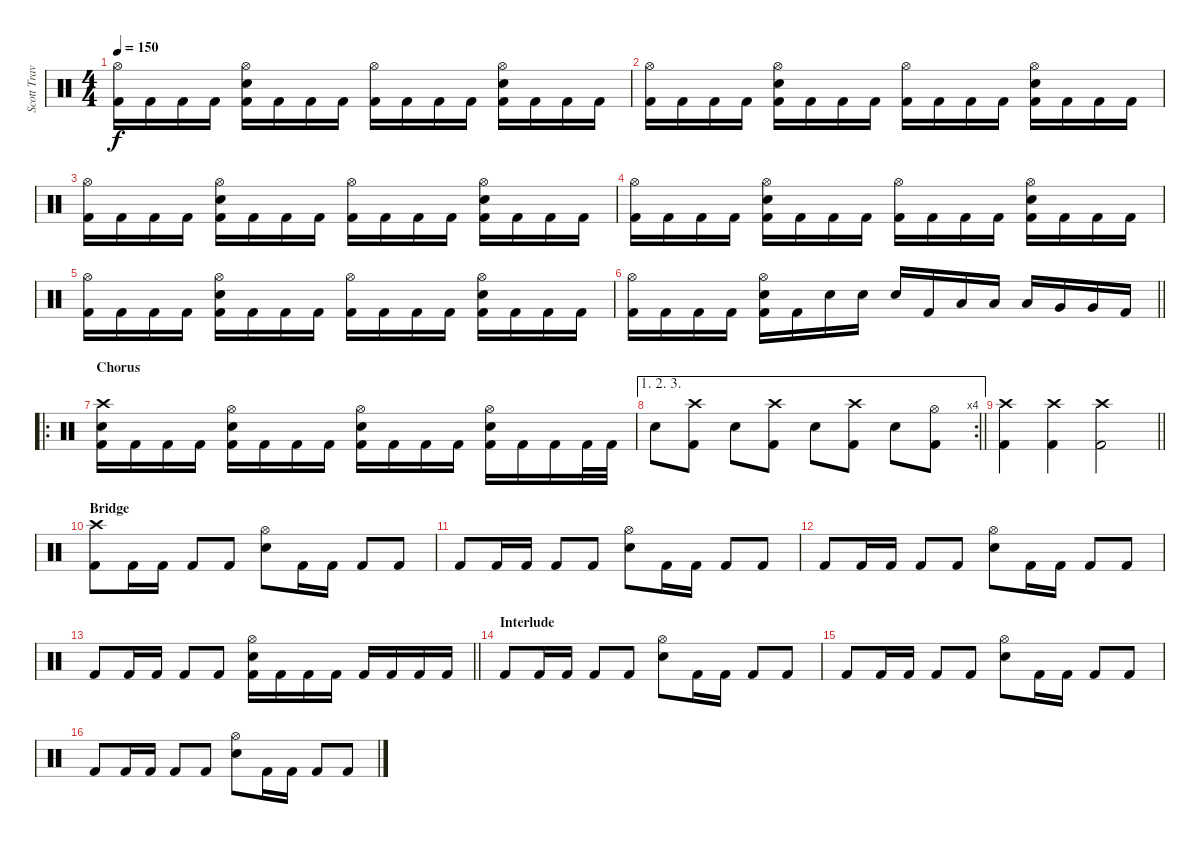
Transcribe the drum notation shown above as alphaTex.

\track ("Scott Travis" "Scott Trav") {instrument percussion}
\staff {score}
\articulation defaults
\ts (4 4)
\tempo 150
\clef neutral
\ks c
("Hi-Hat (open)" "Kick (hit) 2").16{dy f} "Kick (hit) 2".16 "Kick (hit) 2".16 "Kick (hit) 2".16 ("Hi-Hat (open)" "Snare (hit) 2" "Kick (hit) 2").16 "Kick (hit) 2".16 "Kick (hit) 2".16 "Kick (hit) 2".16 ("Hi-Hat (open)" "Kick (hit) 2").16 "Kick (hit) 2".16 "Kick (hit) 2".16 "Kick (hit) 2".16 ("Hi-Hat (open)" "Snare (hit) 2" "Kick (hit) 2").16 "Kick (hit) 2".16 "Kick (hit) 2".16 "Kick (hit) 2".16 |
("Hi-Hat (open)" "Kick (hit) 2").16 "Kick (hit) 2".16 "Kick (hit) 2".16 "Kick (hit) 2".16 ("Hi-Hat (open)" "Snare (hit) 2" "Kick (hit) 2").16 "Kick (hit) 2".16 "Kick (hit) 2".16 "Kick (hit) 2".16 ("Hi-Hat (open)" "Kick (hit) 2").16 "Kick (hit) 2".16 "Kick (hit) 2".16 "Kick (hit) 2".16 ("Hi-Hat (open)" "Snare (hit) 2" "Kick (hit) 2").16 "Kick (hit) 2".16 "Kick (hit) 2".16 "Kick (hit) 2".16 |
("Hi-Hat (open)" "Kick (hit) 2").16 "Kick (hit) 2".16 "Kick (hit) 2".16 "Kick (hit) 2".16 ("Hi-Hat (open)" "Snare (hit) 2" "Kick (hit) 2").16 "Kick (hit) 2".16 "Kick (hit) 2".16 "Kick (hit) 2".16 ("Hi-Hat (open)" "Kick (hit) 2").16 "Kick (hit) 2".16 "Kick (hit) 2".16 "Kick (hit) 2".16 ("Hi-Hat (open)" "Snare (hit) 2" "Kick (hit) 2").16 "Kick (hit) 2".16 "Kick (hit) 2".16 "Kick (hit) 2".16 |
("Hi-Hat (open)" "Kick (hit) 2").16 "Kick (hit) 2".16 "Kick (hit) 2".16 "Kick (hit) 2".16 ("Hi-Hat (open)" "Snare (hit) 2" "Kick (hit) 2").16 "Kick (hit) 2".16 "Kick (hit) 2".16 "Kick (hit) 2".16 ("Hi-Hat (open)" "Kick (hit) 2").16 "Kick (hit) 2".16 "Kick (hit) 2".16 "Kick (hit) 2".16 ("Hi-Hat (open)" "Snare (hit) 2" "Kick (hit) 2").16 "Kick (hit) 2".16 "Kick (hit) 2".16 "Kick (hit) 2".16 |
("Hi-Hat (open)" "Kick (hit) 2").16 "Kick (hit) 2".16 "Kick (hit) 2".16 "Kick (hit) 2".16 ("Hi-Hat (open)" "Snare (hit) 2" "Kick (hit) 2").16 "Kick (hit) 2".16 "Kick (hit) 2".16 "Kick (hit) 2".16 ("Hi-Hat (open)" "Kick (hit) 2").16 "Kick (hit) 2".16 "Kick (hit) 2".16 "Kick (hit) 2".16 ("Hi-Hat (open)" "Snare (hit) 2" "Kick (hit) 2").16 "Kick (hit) 2".16 "Kick (hit) 2".16 "Kick (hit) 2".16 |
\barLineRight lightlight
("Hi-Hat (open)" "Kick (hit) 2").16 "Kick (hit) 2".16 "Kick (hit) 2".16 "Kick (hit) 2".16 ("Hi-Hat (open)" "Snare (hit) 2" "Kick (hit) 2").16 "Kick (hit) 2".16 "Snare (hit) 2".16 "Snare (hit) 2".16 "Snare (hit) 2".16 "Kick (hit) 2".16 "Low Tom (hit)".16 "Low Tom (hit)".16 "Low Tom (hit)".16 "Very Low Tom (hit)".16 "Very Low Tom (hit)".16 "Kick (hit) 2".16 |
\ro
\section ("" "Chorus")
("Crash high (hit)" "Snare (hit) 2" "Kick (hit) 2").16 "Kick (hit) 2".16 "Kick (hit) 2".16 "Kick (hit) 2".16 ("Hi-Hat (open)" "Snare (hit) 2" "Kick (hit) 2").16 "Kick (hit) 2".16 "Kick (hit) 2".16 "Kick (hit) 2".16 ("Hi-Hat (open)" "Snare (hit) 2" "Kick (hit) 2").16 "Kick (hit) 2".16 "Kick (hit) 2".16 "Kick (hit) 2".16 ("Hi-Hat (open)" "Snare (hit) 2" "Kick (hit) 2").16 "Kick (hit) 2".16 "Kick (hit) 2".16 "Kick (hit) 2".32 "Kick (hit) 2".32 |
\ae (1 2 3)
\rc 4
\barLineRight lightlight "Snare (hit) 2".8
("Crash high (hit)" "Kick (hit) 2").8 "Snare (hit) 2".8 ("Crash high (hit)" "Kick (hit) 2").8 "Snare (hit) 2".8 ("Crash high (hit)" "Kick (hit) 2").8 "Snare (hit) 2".8 ("Hi-Hat (open)" "Kick (hit) 2").8 |
\barLineRight lightlight
("Crash high (hit)" "Kick (hit) 2").4 ("Crash high (hit)" "Kick (hit) 2").4 ("Crash high (hit)" "Kick (hit) 2").2 |
\section ("" "Bridge")
("Crash high (hit)" "Kick (hit) 2").8 "Kick (hit) 2".16 "Kick (hit) 2".16 "Kick (hit) 2".8 "Kick (hit) 2".8 ("Hi-Hat (open)" "Snare (hit) 2").8 "Kick (hit) 2".16 "Kick (hit) 2".16 "Kick (hit) 2".8 "Kick (hit) 2".8 |
"Kick (hit) 2".8 "Kick (hit) 2".16 "Kick (hit) 2".16 "Kick (hit) 2".8 "Kick (hit) 2".8 ("Hi-Hat (open)" "Snare (hit) 2").8 "Kick (hit) 2".16 "Kick (hit) 2".16 "Kick (hit) 2".8 "Kick (hit) 2".8 |
"Kick (hit) 2".8 "Kick (hit) 2".16 "Kick (hit) 2".16 "Kick (hit) 2".8 "Kick (hit) 2".8 ("Hi-Hat (open)" "Snare (hit) 2").8 "Kick (hit) 2".16 "Kick (hit) 2".16 "Kick (hit) 2".8 "Kick (hit) 2".8 |
\barLineRight lightlight "Kick (hit) 2".8 "Kick (hit) 2".16 "Kick (hit) 2".16 "Kick (hit) 2".8 "Kick (hit) 2".8
("Hi-Hat (open)" "Snare (hit) 2" "Kick (hit) 2").16 "Kick (hit) 2".16 "Kick (hit) 2".16 "Kick (hit) 2".16 "Kick (hit) 2".16 "Kick (hit) 2".16 "Kick (hit) 2".16 "Kick (hit) 2".16 |
\section ("" "Interlude")
"Kick (hit) 2".8 "Kick (hit) 2".16 "Kick (hit) 2".16 "Kick (hit) 2".8 "Kick (hit) 2".8 ("Hi-Hat (open)" "Snare (hit) 2").8 "Kick (hit) 2".16 "Kick (hit) 2".16 "Kick (hit) 2".8 "Kick (hit) 2".8 |
"Kick (hit) 2".8 "Kick (hit) 2".16 "Kick (hit) 2".16 "Kick (hit) 2".8 "Kick (hit) 2".8 ("Hi-Hat (open)" "Snare (hit) 2").8 "Kick (hit) 2".16 "Kick (hit) 2".16 "Kick (hit) 2".8 "Kick (hit) 2".8 |
"Kick (hit) 2".8 "Kick (hit) 2".16 "Kick (hit) 2".16 "Kick (hit) 2".8 "Kick (hit) 2".8 ("Hi-Hat (open)" "Snare (hit) 2").8 "Kick (hit) 2".16 "Kick (hit) 2".16 "Kick (hit) 2".8 "Kick (hit) 2".8
